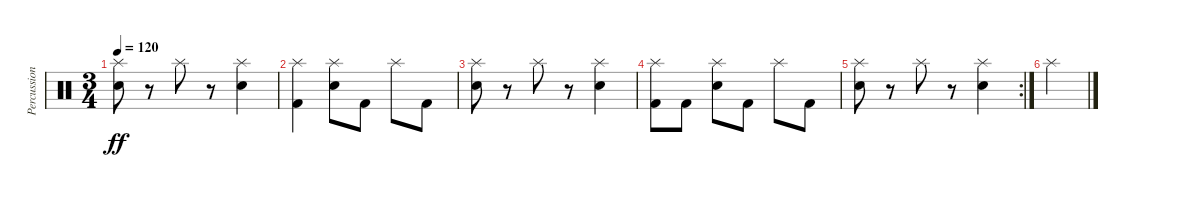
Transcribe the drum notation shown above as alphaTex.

\track ("Percussion" "Percussion") {instrument percussion}
\staff {score}
\articulation defaults
\ts (3 4)
\tempo 120
\clef neutral
\ks c
("Splash (hit)" "Electric Snare (hit)").8{dy ff} r.8 "Splash (hit)".8 r.8 ("Splash (hit)" "Electric Snare (hit)").4 |
("Splash (hit)" "Kick (hit) 2").4 ("Splash (hit)" "Electric Snare (hit)").8 "Kick (hit) 2".8 "Splash (hit)".8 "Kick (hit) 2".8 |
("Splash (hit)" "Electric Snare (hit)").8 r.8 "Splash (hit)".8 r.8 ("Splash (hit)" "Electric Snare (hit)").4 |
("Splash (hit)" "Kick (hit) 2").8 "Kick (hit) 2".8 ("Splash (hit)" "Electric Snare (hit)").8 "Kick (hit) 2".8 "Splash (hit)".8 "Kick (hit) 2".8 |
\rc 2
("Splash (hit)" "Electric Snare (hit)").8 r.8 "Splash (hit)".8 r.8 ("Splash (hit)" "Electric Snare (hit)").4 |
"Splash (hit)".4
